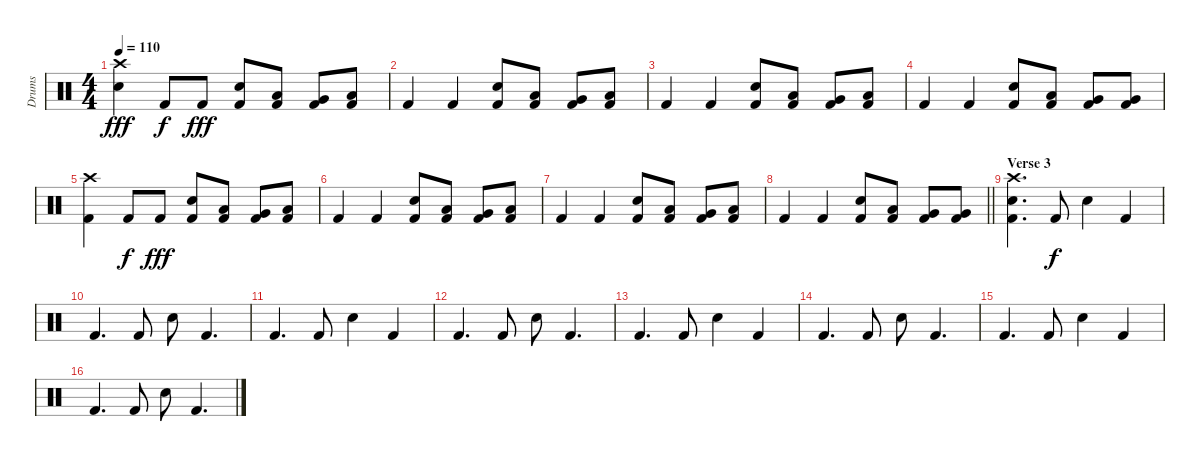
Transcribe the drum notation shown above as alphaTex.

\track ("Drums" "Drums") {instrument percussion}
\staff {score}
\articulation defaults
\ts (4 4)
\tempo 110
\clef neutral
\ks c
("Crash high (hit)" "Electric Snare (hit)").4{dy fff} "Kick (hit) 2".8{dy f} "Kick (hit) 2".8{dy fff} ("Electric Snare (hit)" "Kick (hit) 2").8 ("Low Tom (hit)" "Kick (hit) 2").8 ("Very Low Tom (hit)" "Kick (hit) 2").8 ("Low Tom (hit)" "Kick (hit) 2").8 |
"Kick (hit) 2".4 "Kick (hit) 2".4 ("Electric Snare (hit)" "Kick (hit) 2").8 ("Low Tom (hit)" "Kick (hit) 2").8 ("Very Low Tom (hit)" "Kick (hit) 2").8 ("Low Tom (hit)" "Kick (hit) 2").8 |
"Kick (hit) 2".4 "Kick (hit) 2".4 ("Electric Snare (hit)" "Kick (hit) 2").8 ("Low Tom (hit)" "Kick (hit) 2").8 ("Very Low Tom (hit)" "Kick (hit) 2").8 ("Low Tom (hit)" "Kick (hit) 2").8 |
"Kick (hit) 2".4 "Kick (hit) 2".4 ("Electric Snare (hit)" "Kick (hit) 2").8 ("Low Tom (hit)" "Kick (hit) 2").8 ("Very Low Tom (hit)" "Kick (hit) 2").8 ("Very Low Tom (hit)" "Kick (hit) 2").8 |
("Crash high (hit)" "Kick (hit) 2").4 "Kick (hit) 2".8{dy f} "Kick (hit) 2".8{dy fff} ("Electric Snare (hit)" "Kick (hit) 2").8 ("Low Tom (hit)" "Kick (hit) 2").8 ("Very Low Tom (hit)" "Kick (hit) 2").8 ("Low Tom (hit)" "Kick (hit) 2").8 |
"Kick (hit) 2".4 "Kick (hit) 2".4 ("Electric Snare (hit)" "Kick (hit) 2").8 ("Low Tom (hit)" "Kick (hit) 2").8 ("Very Low Tom (hit)" "Kick (hit) 2").8 ("Low Tom (hit)" "Kick (hit) 2").8 |
"Kick (hit) 2".4 "Kick (hit) 2".4 ("Electric Snare (hit)" "Kick (hit) 2").8 ("Low Tom (hit)" "Kick (hit) 2").8 ("Very Low Tom (hit)" "Kick (hit) 2").8 ("Low Tom (hit)" "Kick (hit) 2").8 |
\barLineRight lightlight "Kick (hit) 2".4 "Kick (hit) 2".4
("Electric Snare (hit)" "Kick (hit) 2").8 ("Low Tom (hit)" "Kick (hit) 2").8 ("Very Low Tom (hit)" "Kick (hit) 2").8 ("Very Low Tom (hit)" "Kick (hit) 2").8 |
\section ("" "Verse 3")
("Crash high (hit)" "Electric Snare (hit)" "Kick (hit) 2").4{d} "Kick (hit) 2".8{dy f} "Electric Snare (hit)".4 "Kick (hit) 2".4 |
"Kick (hit) 2".4{d} "Kick (hit) 2".8 "Electric Snare (hit)".8 "Kick (hit) 2".4{d} |
"Kick (hit) 2".4{d} "Kick (hit) 2".8 "Electric Snare (hit)".4 "Kick (hit) 2".4 |
"Kick (hit) 2".4{d} "Kick (hit) 2".8 "Electric Snare (hit)".8 "Kick (hit) 2".4{d} |
"Kick (hit) 2".4{d} "Kick (hit) 2".8 "Electric Snare (hit)".4 "Kick (hit) 2".4 |
"Kick (hit) 2".4{d} "Kick (hit) 2".8 "Electric Snare (hit)".8 "Kick (hit) 2".4{d} |
"Kick (hit) 2".4{d} "Kick (hit) 2".8 "Electric Snare (hit)".4 "Kick (hit) 2".4 |
"Kick (hit) 2".4{d} "Kick (hit) 2".8 "Electric Snare (hit)".8 "Kick (hit) 2".4{d}
